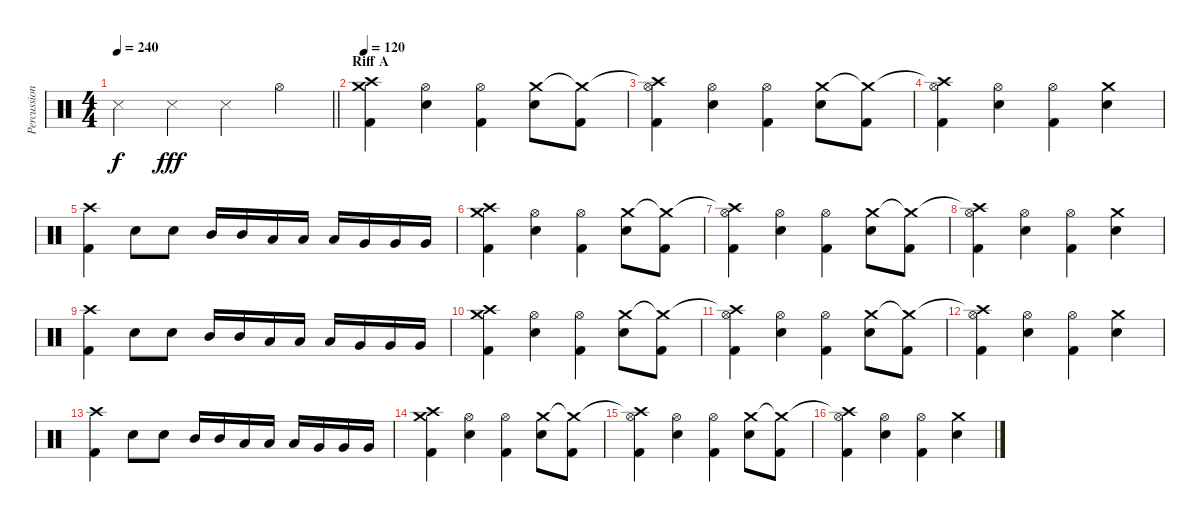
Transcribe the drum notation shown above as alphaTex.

\track ("Percussion" "Percussion") {instrument percussion}
\staff {score}
\articulation defaults
\ts (4 4)
\tempo 240
\tempo 120
\tempo 240
\clef neutral
\barLineRight lightlight
\ks c "Snare (side stick) 3".4{dy f} "Snare (side stick) 3".4{dy fff} "Snare (side stick) 3".4 "Hi-Hat (open)".4
|
\section ("" "Riff A")
\tempo 120
("Crash high (hit)" "Crash medium (hit)" "Kick (hit) 2").4 ("Hi-Hat (open)" "Snare (hit) 2").4 ("Hi-Hat (open)" "Kick (hit) 2").4 ("Crash medium (hit)" "Snare (hit) 2").8 ("Crash medium (hit)"{t} "Kick (hit) 2").8 |
("Crash high (hit)"{t} "Hi-Hat (open)" "Kick (hit) 2").4 ("Hi-Hat (open)" "Snare (hit) 2").4 ("Hi-Hat (open)" "Kick (hit) 2").4 ("Crash medium (hit)" "Snare (hit) 2").8 ("Crash medium (hit)"{t} "Kick (hit) 2").8 |
("Crash high (hit)"{t} "Hi-Hat (open)" "Kick (hit) 2").4 ("Hi-Hat (open)" "Snare (hit) 2").4 ("Hi-Hat (open)" "Kick (hit) 2").4 ("Crash medium (hit)" "Snare (hit) 2").4 |
("Crash high (hit)" "Kick (hit) 2").4 "Snare (hit) 2".8 "Snare (hit) 2".8 "Mid Tom (hit)".16 "Mid Tom (hit)".16 "Low Tom (hit)".16 "Low Tom (hit)".16 "Low Tom (hit)".16 "Very Low Tom (hit)".16 "Very Low Tom (hit)".16 "Very Low Tom (hit)".16 |
("Crash high (hit)" "Crash medium (hit)" "Kick (hit) 2").4 ("Hi-Hat (open)" "Snare (hit) 2").4 ("Hi-Hat (open)" "Kick (hit) 2").4 ("Crash medium (hit)" "Snare (hit) 2").8 ("Crash medium (hit)"{t} "Kick (hit) 2").8 |
("Crash high (hit)"{t} "Hi-Hat (open)" "Kick (hit) 2").4 ("Hi-Hat (open)" "Snare (hit) 2").4 ("Hi-Hat (open)" "Kick (hit) 2").4 ("Crash medium (hit)" "Snare (hit) 2").8 ("Crash medium (hit)"{t} "Kick (hit) 2").8 |
("Crash high (hit)"{t} "Hi-Hat (open)" "Kick (hit) 2").4 ("Hi-Hat (open)" "Snare (hit) 2").4 ("Hi-Hat (open)" "Kick (hit) 2").4 ("Crash medium (hit)" "Snare (hit) 2").4 |
("Crash high (hit)" "Kick (hit) 2").4 "Snare (hit) 2".8 "Snare (hit) 2".8 "Mid Tom (hit)".16 "Mid Tom (hit)".16 "Low Tom (hit)".16 "Low Tom (hit)".16 "Low Tom (hit)".16 "Very Low Tom (hit)".16 "Very Low Tom (hit)".16 "Very Low Tom (hit)".16 |
("Crash high (hit)" "Crash medium (hit)" "Kick (hit) 2").4 ("Hi-Hat (open)" "Snare (hit) 2").4 ("Hi-Hat (open)" "Kick (hit) 2").4 ("Crash medium (hit)" "Snare (hit) 2").8 ("Crash medium (hit)"{t} "Kick (hit) 2").8 |
("Crash high (hit)"{t} "Hi-Hat (open)" "Kick (hit) 2").4 ("Hi-Hat (open)" "Snare (hit) 2").4 ("Hi-Hat (open)" "Kick (hit) 2").4 ("Crash medium (hit)" "Snare (hit) 2").8 ("Crash medium (hit)"{t} "Kick (hit) 2").8 |
("Crash high (hit)"{t} "Hi-Hat (open)" "Kick (hit) 2").4 ("Hi-Hat (open)" "Snare (hit) 2").4 ("Hi-Hat (open)" "Kick (hit) 2").4 ("Crash medium (hit)" "Snare (hit) 2").4 |
("Crash high (hit)" "Kick (hit) 2").4 "Snare (hit) 2".8 "Snare (hit) 2".8 "Mid Tom (hit)".16 "Mid Tom (hit)".16 "Low Tom (hit)".16 "Low Tom (hit)".16 "Low Tom (hit)".16 "Very Low Tom (hit)".16 "Very Low Tom (hit)".16 "Very Low Tom (hit)".16 |
("Crash high (hit)" "Crash medium (hit)" "Kick (hit) 2").4 ("Hi-Hat (open)" "Snare (hit) 2").4 ("Hi-Hat (open)" "Kick (hit) 2").4 ("Crash medium (hit)" "Snare (hit) 2").8 ("Crash medium (hit)"{t} "Kick (hit) 2").8 |
("Crash high (hit)"{t} "Hi-Hat (open)" "Kick (hit) 2").4 ("Hi-Hat (open)" "Snare (hit) 2").4 ("Hi-Hat (open)" "Kick (hit) 2").4 ("Crash medium (hit)" "Snare (hit) 2").8 ("Crash medium (hit)"{t} "Kick (hit) 2").8 |
("Crash high (hit)"{t} "Hi-Hat (open)" "Kick (hit) 2").4 ("Hi-Hat (open)" "Snare (hit) 2").4 ("Hi-Hat (open)" "Kick (hit) 2").4 ("Crash medium (hit)" "Snare (hit) 2").4
